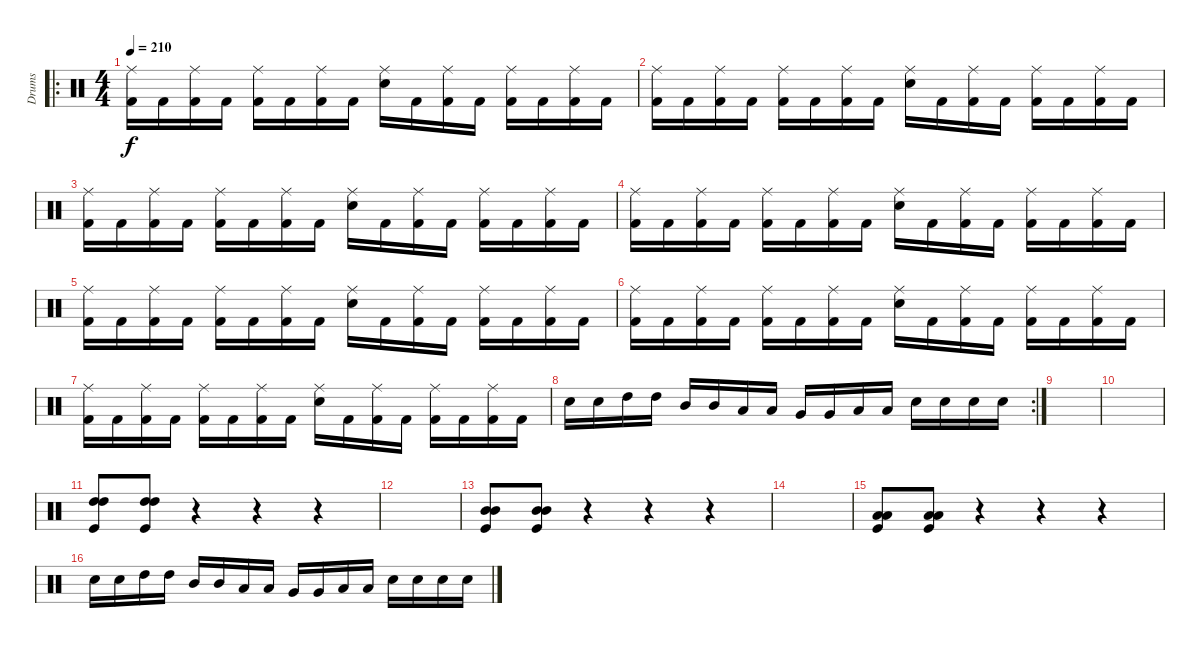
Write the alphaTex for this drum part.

\track ("Drums" "Drums") {instrument percussion}
\staff {score}
\articulation defaults
\ro
\ts (4 4)
\tempo 210
\clef neutral
\ks c
("Ride (middle)" "Kick (hit) 2").16{dy f} "Kick (hit) 2".16 ("Ride (middle)" "Kick (hit) 2").16 "Kick (hit) 2".16 ("Ride (middle)" "Kick (hit) 2").16 "Kick (hit) 2".16 ("Ride (middle)" "Kick (hit) 2").16 "Kick (hit) 2".16 ("Ride (middle)" "Electric Snare (hit)").16 "Kick (hit) 2".16 ("Ride (middle)" "Kick (hit) 2").16 "Kick (hit) 2".16 ("Ride (middle)" "Kick (hit) 2").16 "Kick (hit) 2".16 ("Ride (middle)" "Kick (hit) 2").16 "Kick (hit) 2".16 |
("Ride (middle)" "Kick (hit) 2").16 "Kick (hit) 2".16 ("Ride (middle)" "Kick (hit) 2").16 "Kick (hit) 2".16 ("Ride (middle)" "Kick (hit) 2").16 "Kick (hit) 2".16 ("Ride (middle)" "Kick (hit) 2").16 "Kick (hit) 2".16 ("Ride (middle)" "Electric Snare (hit)").16 "Kick (hit) 2".16 ("Ride (middle)" "Kick (hit) 2").16 "Kick (hit) 2".16 ("Ride (middle)" "Kick (hit) 2").16 "Kick (hit) 2".16 ("Ride (middle)" "Kick (hit) 2").16 "Kick (hit) 2".16 |
("Ride (middle)" "Kick (hit) 2").16 "Kick (hit) 2".16 ("Ride (middle)" "Kick (hit) 2").16 "Kick (hit) 2".16 ("Ride (middle)" "Kick (hit) 2").16 "Kick (hit) 2".16 ("Ride (middle)" "Kick (hit) 2").16 "Kick (hit) 2".16 ("Ride (middle)" "Electric Snare (hit)").16 "Kick (hit) 2".16 ("Ride (middle)" "Kick (hit) 2").16 "Kick (hit) 2".16 ("Ride (middle)" "Kick (hit) 2").16 "Kick (hit) 2".16 ("Ride (middle)" "Kick (hit) 2").16 "Kick (hit) 2".16 |
("Ride (middle)" "Kick (hit) 2").16 "Kick (hit) 2".16 ("Ride (middle)" "Kick (hit) 2").16 "Kick (hit) 2".16 ("Ride (middle)" "Kick (hit) 2").16 "Kick (hit) 2".16 ("Ride (middle)" "Kick (hit) 2").16 "Kick (hit) 2".16 ("Ride (middle)" "Electric Snare (hit)").16 "Kick (hit) 2".16 ("Ride (middle)" "Kick (hit) 2").16 "Kick (hit) 2".16 ("Ride (middle)" "Kick (hit) 2").16 "Kick (hit) 2".16 ("Ride (middle)" "Kick (hit) 2").16 "Kick (hit) 2".16 |
("Ride (middle)" "Kick (hit) 2").16 "Kick (hit) 2".16 ("Ride (middle)" "Kick (hit) 2").16 "Kick (hit) 2".16 ("Ride (middle)" "Kick (hit) 2").16 "Kick (hit) 2".16 ("Ride (middle)" "Kick (hit) 2").16 "Kick (hit) 2".16 ("Ride (middle)" "Electric Snare (hit)").16 "Kick (hit) 2".16 ("Ride (middle)" "Kick (hit) 2").16 "Kick (hit) 2".16 ("Ride (middle)" "Kick (hit) 2").16 "Kick (hit) 2".16 ("Ride (middle)" "Kick (hit) 2").16 "Kick (hit) 2".16 |
("Ride (middle)" "Kick (hit) 2").16 "Kick (hit) 2".16 ("Ride (middle)" "Kick (hit) 2").16 "Kick (hit) 2".16 ("Ride (middle)" "Kick (hit) 2").16 "Kick (hit) 2".16 ("Ride (middle)" "Kick (hit) 2").16 "Kick (hit) 2".16 ("Ride (middle)" "Electric Snare (hit)").16 "Kick (hit) 2".16 ("Ride (middle)" "Kick (hit) 2").16 "Kick (hit) 2".16 ("Ride (middle)" "Kick (hit) 2").16 "Kick (hit) 2".16 ("Ride (middle)" "Kick (hit) 2").16 "Kick (hit) 2".16 |
("Ride (middle)" "Kick (hit) 2").16 "Kick (hit) 2".16 ("Ride (middle)" "Kick (hit) 2").16 "Kick (hit) 2".16 ("Ride (middle)" "Kick (hit) 2").16 "Kick (hit) 2".16 ("Ride (middle)" "Kick (hit) 2").16 "Kick (hit) 2".16 ("Ride (middle)" "Electric Snare (hit)").16 "Kick (hit) 2".16 ("Ride (middle)" "Kick (hit) 2").16 "Kick (hit) 2".16 ("Ride (middle)" "Kick (hit) 2").16 "Kick (hit) 2".16 ("Ride (middle)" "Kick (hit) 2").16 "Kick (hit) 2".16 |
\rc 2 "Electric Snare (hit)".16 "Electric Snare (hit)".16 "High Tom (hit)".16 "High Tom (hit)".16 "Mid Tom (hit)".16 "Mid Tom (hit)".16 "Low Tom (hit)".16 "Low Tom (hit)".16 "Very Low Tom (hit)".16 "Very Low Tom (hit)".16 "Low Tom (hit)".16 "Low Tom (hit)".16 "Electric Snare (hit)".16 "Electric Snare (hit)".16 "Electric Snare (hit)".16 "Electric Snare (hit)".16
|
|
|
("High Tom (hit)" "High Tom (hit)" "Kick (hit)").8 ("High Tom (hit)" "High Tom (hit)" "Kick (hit)").8 r.4 r.4 r.4 |
|
("Mid Tom (hit)" "Mid Tom (hit)" "Kick (hit)").8 ("Mid Tom (hit)" "Mid Tom (hit)" "Kick (hit)").8 r.4 r.4 r.4 |
|
("Low Tom (hit)" "Low Tom (hit)" "Kick (hit)").8 ("Low Tom (hit)" "Low Tom (hit)" "Kick (hit)").8 r.4 r.4 r.4 |
"Electric Snare (hit)".16 "Electric Snare (hit)".16 "High Tom (hit)".16 "High Tom (hit)".16 "Mid Tom (hit)".16 "Mid Tom (hit)".16 "Low Tom (hit)".16 "Low Tom (hit)".16 "Very Low Tom (hit)".16 "Very Low Tom (hit)".16 "Low Tom (hit)".16 "Low Tom (hit)".16 "Electric Snare (hit)".16 "Electric Snare (hit)".16 "Electric Snare (hit)".16 "Electric Snare (hit)".16
